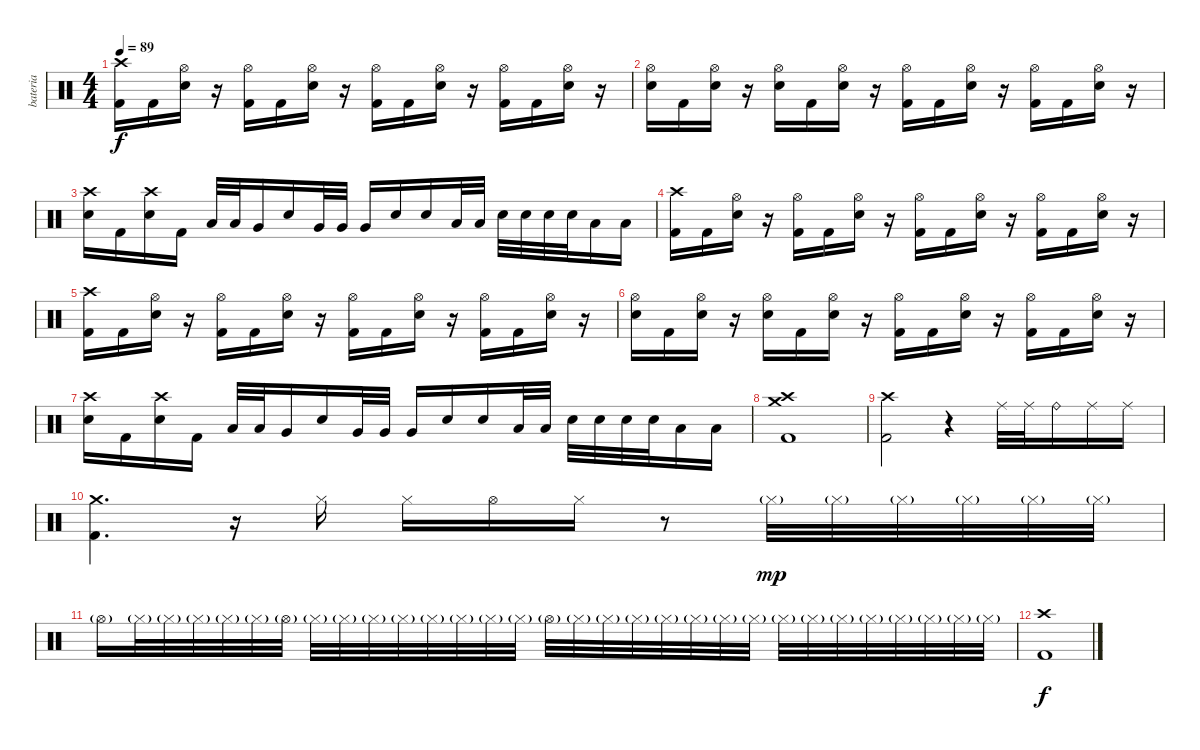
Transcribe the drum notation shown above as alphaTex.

\track ("bateria" "bateria") {instrument percussion}
\staff {score}
\articulation defaults
\ts (4 4)
\tempo 89
\clef neutral
\ks c
("Crash high (hit)" "Kick (hit) 2").16{dy f} "Kick (hit) 2".16 ("Hi-Hat (open)" "Electric Snare (hit)").16 r.16 ("Hi-Hat (open)" "Kick (hit) 2").16 "Kick (hit) 2".16 ("Hi-Hat (open)" "Electric Snare (hit)").16 r.16 ("Hi-Hat (open)" "Kick (hit) 2").16 "Kick (hit) 2".16 ("Hi-Hat (open)" "Electric Snare (hit)").16 r.16 ("Hi-Hat (open)" "Kick (hit) 2").16 "Kick (hit) 2".16 ("Hi-Hat (open)" "Electric Snare (hit)").16 r.16 |
("Hi-Hat (open)" "Electric Snare (hit)").16 "Kick (hit) 2".16 ("Hi-Hat (open)" "Electric Snare (hit)").16 r.16 ("Hi-Hat (open)" "Electric Snare (hit)").16 "Kick (hit) 2".16 ("Hi-Hat (open)" "Electric Snare (hit)").16 r.16 ("Hi-Hat (open)" "Kick (hit) 2").16 "Kick (hit) 2".16 ("Hi-Hat (open)" "Electric Snare (hit)").16 r.16 ("Hi-Hat (open)" "Kick (hit) 2").16 "Kick (hit) 2".16 ("Hi-Hat (open)" "Electric Snare (hit)").16 r.16 |
("Crash high (hit)" "Electric Snare (hit)").16 "Kick (hit) 2".16 ("Crash high (hit)" "Electric Snare (hit)").16 "Kick (hit) 2".16 "Low Tom (hit)".32 "Low Tom (hit)".32 "Very Low Tom (hit)".16 "Electric Snare (hit)".16 "Very Low Tom (hit)".32 "Very Low Tom (hit)".32 "Very Low Tom (hit)".16 "Electric Snare (hit)".16 "Electric Snare (hit)".16 "Low Floor Tom (hit)".32 "Low Floor Tom (hit)".32 "Electric Snare (hit)".32 "Electric Snare (hit)".32 "Electric Snare (hit)".32 "Electric Snare (hit)".32 "Low Tom (hit)".16 "Low Tom (hit)".16 |
("Crash high (hit)" "Kick (hit) 2").16 "Kick (hit) 2".16 ("Hi-Hat (open)" "Electric Snare (hit)").16 r.16 ("Hi-Hat (open)" "Kick (hit) 2").16 "Kick (hit) 2".16 ("Hi-Hat (open)" "Electric Snare (hit)").16 r.16 ("Hi-Hat (open)" "Kick (hit) 2").16 "Kick (hit) 2".16 ("Hi-Hat (open)" "Electric Snare (hit)").16 r.16 ("Hi-Hat (open)" "Kick (hit) 2").16 "Kick (hit) 2".16 ("Hi-Hat (open)" "Electric Snare (hit)").16 r.16 |
("Crash high (hit)" "Kick (hit) 2").16 "Kick (hit) 2".16 ("Hi-Hat (open)" "Electric Snare (hit)").16 r.16 ("Hi-Hat (open)" "Kick (hit) 2").16 "Kick (hit) 2".16 ("Hi-Hat (open)" "Electric Snare (hit)").16 r.16 ("Hi-Hat (open)" "Kick (hit) 2").16 "Kick (hit) 2".16 ("Hi-Hat (open)" "Electric Snare (hit)").16 r.16 ("Hi-Hat (open)" "Kick (hit) 2").16 "Kick (hit) 2".16 ("Hi-Hat (open)" "Electric Snare (hit)").16 r.16 |
("Hi-Hat (open)" "Electric Snare (hit)").16 "Kick (hit) 2".16 ("Hi-Hat (open)" "Electric Snare (hit)").16 r.16 ("Hi-Hat (open)" "Electric Snare (hit)").16 "Kick (hit) 2".16 ("Hi-Hat (open)" "Electric Snare (hit)").16 r.16 ("Hi-Hat (open)" "Kick (hit) 2").16 "Kick (hit) 2".16 ("Hi-Hat (open)" "Electric Snare (hit)").16 r.16 ("Hi-Hat (open)" "Kick (hit) 2").16 "Kick (hit) 2".16 ("Hi-Hat (open)" "Electric Snare (hit)").16 r.16 |
("Crash high (hit)" "Electric Snare (hit)").16 "Kick (hit) 2".16 ("Crash high (hit)" "Electric Snare (hit)").16 "Kick (hit) 2".16 "Low Tom (hit)".32 "Low Tom (hit)".32 "Very Low Tom (hit)".16 "Electric Snare (hit)".16 "Very Low Tom (hit)".32 "Very Low Tom (hit)".32 "Very Low Tom (hit)".16 "Electric Snare (hit)".16 "Electric Snare (hit)".16 "Low Floor Tom (hit)".32 "Low Floor Tom (hit)".32 "Electric Snare (hit)".32 "Electric Snare (hit)".32 "Electric Snare (hit)".32 "Electric Snare (hit)".32 "Low Tom (hit)".16 "Low Tom (hit)".16 |
("Crash medium (hit)" "Crash high (hit)" "Kick (hit) 2").1 |
("Crash high (hit)" "Kick (hit) 2").2 r.4 "Ride (middle)".32 "Ride (middle)".32 "Ride (bell)".16 "Ride (middle)".16 "Ride (middle)".16 |
("Crash medium (hit)" "Kick (hit) 2").4{d} r.16 "Hi-Hat (closed)".16 "Hi-Hat (closed)".16 "Hi-Hat (open)".16 "Hi-Hat (closed)".16 r.8 "Hi-Hat (closed)"{g}.32{dy mp} "Hi-Hat (closed)"{g}.32 "Hi-Hat (closed)"{g}.32 "Hi-Hat (closed)"{g}.32 "Hi-Hat (closed)"{g}.32 "Hi-Hat (closed)"{g}.32 |
"Hi-Hat (open)"{g}.16 "Hi-Hat (closed)"{g}.32 "Hi-Hat (closed)"{g}.32 "Hi-Hat (closed)"{g}.32 "Hi-Hat (closed)"{g}.32 "Hi-Hat (closed)"{g}.32 "Hi-Hat (open)"{g}.32 "Hi-Hat (closed)"{g}.32 "Hi-Hat (closed)"{g}.32 "Hi-Hat (closed)"{g}.32 "Hi-Hat (closed)"{g}.32 "Hi-Hat (closed)"{g}.32 "Hi-Hat (closed)"{g}.32 "Hi-Hat (closed)"{g}.32 "Hi-Hat (closed)"{g}.32 "Hi-Hat (open)"{g}.32 "Hi-Hat (closed)"{g}.32 "Hi-Hat (closed)"{g}.32 "Hi-Hat (closed)"{g}.32 "Hi-Hat (closed)"{g}.32 "Hi-Hat (closed)"{g}.32 "Hi-Hat (closed)"{g}.32 "Hi-Hat (closed)"{g}.32 "Hi-Hat (closed)"{g}.32 "Hi-Hat (closed)"{g}.32 "Hi-Hat (closed)"{g}.32 "Hi-Hat (closed)"{g}.32 "Hi-Hat (closed)"{g}.32 "Hi-Hat (closed)"{g}.32 "Hi-Hat (closed)"{g}.32 "Hi-Hat (closed)"{g}.32 |
("Crash high (hit)" "Kick (hit) 2").1{dy f}
